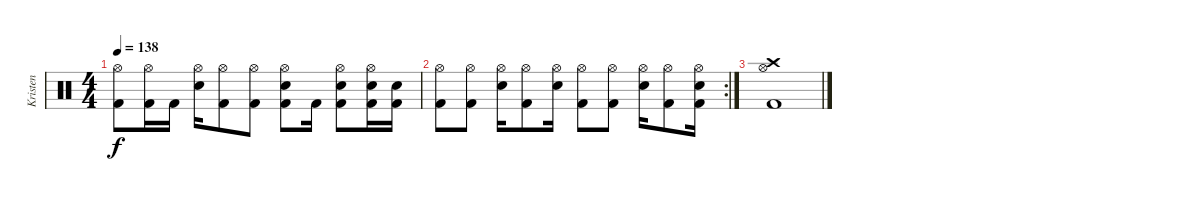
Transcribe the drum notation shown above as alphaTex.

\track ("Kristen" "Kristen") {instrument percussion}
\staff {score}
\articulation defaults
\ts (4 4)
\tempo 138
\clef neutral
\ks c
("Hi-Hat (open)" "Kick (hit) 2").8{dy f} ("Hi-Hat (open)" "Kick (hit) 2").16 "Kick (hit) 2".16 ("Hi-Hat (open)" "Snare (hit) 2").16 ("Hi-Hat (open)" "Kick (hit) 2").8 ("Hi-Hat (open)" "Kick (hit) 2").8 ("Hi-Hat (open)" "Snare (hit) 2" "Kick (hit) 2").8 "Kick (hit) 2".16 ("Hi-Hat (open)" "Snare (hit) 2" "Kick (hit) 2").8 ("Hi-Hat (open)" "Snare (hit) 2" "Kick (hit) 2").16 ("Snare (hit) 2" "Kick (hit) 2").16 |
\rc 2
("Hi-Hat (open)" "Kick (hit) 2").8 ("Hi-Hat (open)" "Kick (hit) 2").8 ("Hi-Hat (open)" "Snare (hit) 2").16 ("Hi-Hat (open)" "Kick (hit) 2").8 ("Hi-Hat (open)" "Snare (hit) 2").16 ("Hi-Hat (open)" "Kick (hit) 2").8 ("Hi-Hat (open)" "Kick (hit) 2").8 ("Hi-Hat (open)" "Snare (hit) 2").16 ("Hi-Hat (open)" "Kick (hit) 2").8 ("Hi-Hat (open)" "Snare (hit) 2" "Kick (hit) 2").16 |
("Crash high (hit)" "Hi-Hat (open)" "Kick (hit) 2").1
